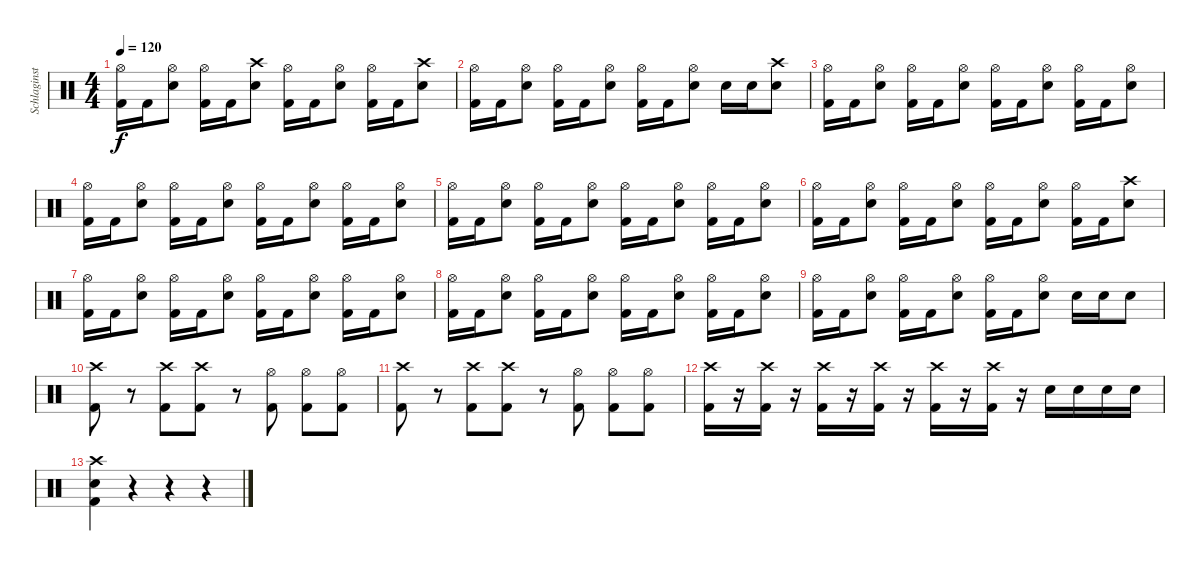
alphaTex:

\track ("Schlaginstrumente - Auswahl" "Schlaginst") {instrument percussion}
\staff {score}
\articulation defaults
\ts (4 4)
\tempo 120
\clef neutral
\ks c
("Hi-Hat (open)" "Kick (hit) 2").16{dy f} "Kick (hit) 2".16 ("Hi-Hat (open)" "Electric Snare (hit)").8 ("Hi-Hat (open)" "Kick (hit) 2").16 "Kick (hit) 2".16 ("Crash high (hit)" "Electric Snare (hit)").8 ("Hi-Hat (open)" "Kick (hit) 2").16 "Kick (hit) 2".16 ("Hi-Hat (open)" "Electric Snare (hit)").8 ("Hi-Hat (open)" "Kick (hit) 2").16 "Kick (hit) 2".16 ("Crash high (hit)" "Electric Snare (hit)").8 |
("Hi-Hat (open)" "Kick (hit) 2").16 "Kick (hit) 2".16 ("Hi-Hat (open)" "Electric Snare (hit)").8 ("Hi-Hat (open)" "Kick (hit) 2").16 "Kick (hit) 2".16 ("Hi-Hat (open)" "Electric Snare (hit)").8 ("Hi-Hat (open)" "Kick (hit) 2").16 "Kick (hit) 2".16 ("Hi-Hat (open)" "Electric Snare (hit)").8 "Electric Snare (hit)".16 "Electric Snare (hit)".16 ("Crash high (hit)" "Electric Snare (hit)").8 |
("Hi-Hat (open)" "Kick (hit) 2").16 "Kick (hit) 2".16 ("Hi-Hat (open)" "Electric Snare (hit)").8 ("Hi-Hat (open)" "Kick (hit) 2").16 "Kick (hit) 2".16 ("Hi-Hat (open)" "Electric Snare (hit)").8 ("Hi-Hat (open)" "Kick (hit) 2").16 "Kick (hit) 2".16 ("Hi-Hat (open)" "Electric Snare (hit)").8 ("Hi-Hat (open)" "Kick (hit) 2").16 "Kick (hit) 2".16 ("Hi-Hat (open)" "Electric Snare (hit)").8 |
("Hi-Hat (open)" "Kick (hit) 2").16 "Kick (hit) 2".16 ("Hi-Hat (open)" "Electric Snare (hit)").8 ("Hi-Hat (open)" "Kick (hit) 2").16 "Kick (hit) 2".16 ("Hi-Hat (open)" "Electric Snare (hit)").8 ("Hi-Hat (open)" "Kick (hit) 2").16 "Kick (hit) 2".16 ("Hi-Hat (open)" "Electric Snare (hit)").8 ("Hi-Hat (open)" "Kick (hit) 2").16 "Kick (hit) 2".16 ("Hi-Hat (open)" "Electric Snare (hit)").8 |
("Hi-Hat (open)" "Kick (hit) 2").16 "Kick (hit) 2".16 ("Hi-Hat (open)" "Electric Snare (hit)").8 ("Hi-Hat (open)" "Kick (hit) 2").16 "Kick (hit) 2".16 ("Hi-Hat (open)" "Electric Snare (hit)").8 ("Hi-Hat (open)" "Kick (hit) 2").16 "Kick (hit) 2".16 ("Hi-Hat (open)" "Electric Snare (hit)").8 ("Hi-Hat (open)" "Kick (hit) 2").16 "Kick (hit) 2".16 ("Hi-Hat (open)" "Electric Snare (hit)").8 |
("Hi-Hat (open)" "Kick (hit) 2").16 "Kick (hit) 2".16 ("Hi-Hat (open)" "Electric Snare (hit)").8 ("Hi-Hat (open)" "Kick (hit) 2").16 "Kick (hit) 2".16 ("Hi-Hat (open)" "Electric Snare (hit)").8 ("Hi-Hat (open)" "Kick (hit) 2").16 "Kick (hit) 2".16 ("Hi-Hat (open)" "Electric Snare (hit)").8 ("Hi-Hat (open)" "Kick (hit) 2").16 "Kick (hit) 2".16 ("Crash high (hit)" "Electric Snare (hit)").8 |
("Hi-Hat (open)" "Kick (hit) 2").16 "Kick (hit) 2".16 ("Hi-Hat (open)" "Electric Snare (hit)").8 ("Hi-Hat (open)" "Kick (hit) 2").16 "Kick (hit) 2".16 ("Hi-Hat (open)" "Electric Snare (hit)").8 ("Hi-Hat (open)" "Kick (hit) 2").16 "Kick (hit) 2".16 ("Hi-Hat (open)" "Electric Snare (hit)").8 ("Hi-Hat (open)" "Kick (hit) 2").16 "Kick (hit) 2".16 ("Hi-Hat (open)" "Electric Snare (hit)").8 |
("Hi-Hat (open)" "Kick (hit) 2").16 "Kick (hit) 2".16 ("Hi-Hat (open)" "Electric Snare (hit)").8 ("Hi-Hat (open)" "Kick (hit) 2").16 "Kick (hit) 2".16 ("Hi-Hat (open)" "Electric Snare (hit)").8 ("Hi-Hat (open)" "Kick (hit) 2").16 "Kick (hit) 2".16 ("Hi-Hat (open)" "Electric Snare (hit)").8 ("Hi-Hat (open)" "Kick (hit) 2").16 "Kick (hit) 2".16 ("Hi-Hat (open)" "Electric Snare (hit)").8 |
("Hi-Hat (open)" "Kick (hit) 2").16 "Kick (hit) 2".16 ("Hi-Hat (open)" "Electric Snare (hit)").8 ("Hi-Hat (open)" "Kick (hit) 2").16 "Kick (hit) 2".16 ("Hi-Hat (open)" "Electric Snare (hit)").8 ("Hi-Hat (open)" "Kick (hit) 2").16 "Kick (hit) 2".16 ("Hi-Hat (open)" "Electric Snare (hit)").8 "Electric Snare (hit)".16 "Electric Snare (hit)".16 "Electric Snare (hit)".8 |
("Crash high (hit)" "Kick (hit) 2").8 r.8 ("Crash high (hit)" "Kick (hit) 2").8 ("Crash high (hit)" "Kick (hit) 2").8 r.8 ("Hi-Hat (open)" "Kick (hit) 2").8 ("Hi-Hat (open)" "Kick (hit) 2").8 ("Hi-Hat (open)" "Kick (hit) 2").8 |
("Crash high (hit)" "Kick (hit) 2").8 r.8 ("Crash high (hit)" "Kick (hit) 2").8 ("Crash high (hit)" "Kick (hit) 2").8 r.8 ("Hi-Hat (open)" "Kick (hit) 2").8 ("Hi-Hat (open)" "Kick (hit) 2").8 ("Hi-Hat (open)" "Kick (hit) 2").8 |
("Crash high (hit)" "Kick (hit) 2").16 r.16 ("Crash high (hit)" "Kick (hit) 2").16 r.16 ("Crash high (hit)" "Kick (hit) 2").16 r.16 ("Crash high (hit)" "Kick (hit) 2").16 r.16 ("Crash high (hit)" "Kick (hit) 2").16 r.16 ("Crash high (hit)" "Kick (hit) 2").16 r.16 "Electric Snare (hit)".16 "Electric Snare (hit)".16 "Electric Snare (hit)".16 "Electric Snare (hit)".16 |
("Crash high (hit)" "Electric Snare (hit)" "Kick (hit) 2").4 r.4 r.4 r.4
